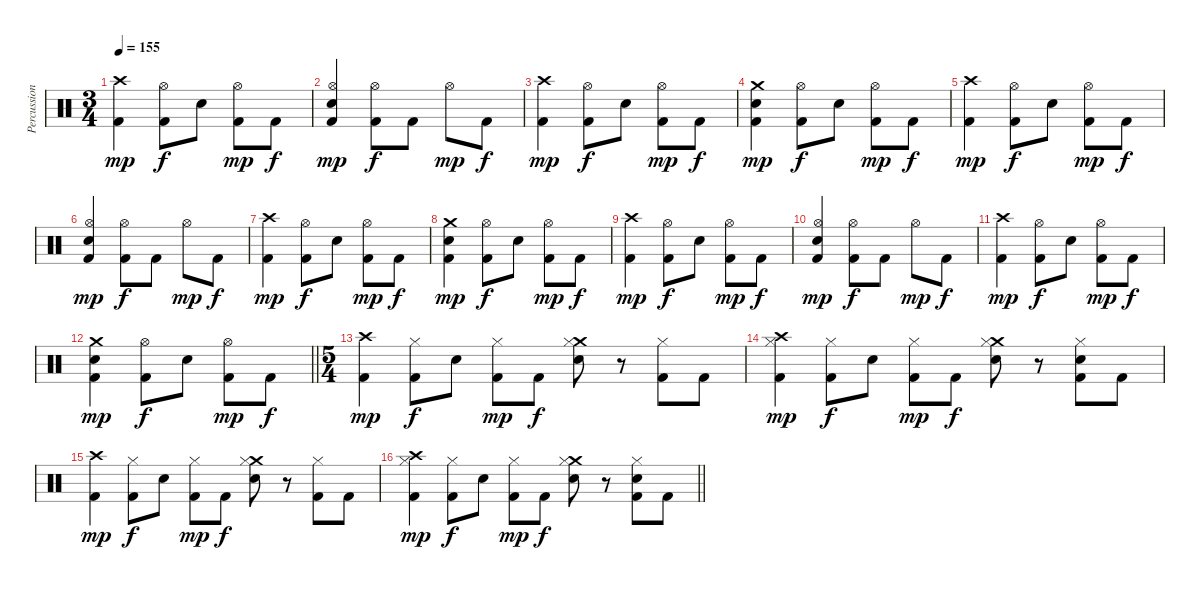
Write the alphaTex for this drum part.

\track ("Percussion" "Percussion") {instrument percussion}
\staff {score}
\articulation defaults
\ts (3 4)
\tempo 155
\clef neutral
\ks c
("Crash high (hit)" "Kick (hit) 2").4{dy mp} ("Hi-Hat (open)" "Kick (hit) 2").8{dy f} "Snare (hit) 2".8 ("Hi-Hat (open)" "Kick (hit) 2").8{dy mp} "Kick (hit) 2".8{dy f} |
("Hi-Hat (open)" "Snare (hit) 2" "Kick (hit) 2").4{dy mp} ("Hi-Hat (open)" "Kick (hit) 2").8{dy f} "Kick (hit) 2".8 "Hi-Hat (open)".8{dy mp} "Kick (hit) 2".8{dy f} |
("Crash high (hit)" "Kick (hit) 2").4{dy mp} ("Hi-Hat (open)" "Kick (hit) 2").8{dy f} "Snare (hit) 2".8 ("Hi-Hat (open)" "Kick (hit) 2").8{dy mp} "Kick (hit) 2".8{dy f} |
("Crash medium (hit)" "Snare (hit) 2" "Kick (hit) 2").4{dy mp} ("Hi-Hat (open)" "Kick (hit) 2").8{dy f} "Snare (hit) 2".8 ("Hi-Hat (open)" "Kick (hit) 2").8{dy mp} "Kick (hit) 2".8{dy f} |
("Crash high (hit)" "Kick (hit) 2").4{dy mp} ("Hi-Hat (open)" "Kick (hit) 2").8{dy f} "Snare (hit) 2".8 ("Hi-Hat (open)" "Kick (hit) 2").8{dy mp} "Kick (hit) 2".8{dy f} |
("Hi-Hat (open)" "Snare (hit) 2" "Kick (hit) 2").4{dy mp} ("Hi-Hat (open)" "Kick (hit) 2").8{dy f} "Kick (hit) 2".8 "Hi-Hat (open)".8{dy mp} "Kick (hit) 2".8{dy f} |
("Crash high (hit)" "Kick (hit) 2").4{dy mp} ("Hi-Hat (open)" "Kick (hit) 2").8{dy f} "Snare (hit) 2".8 ("Hi-Hat (open)" "Kick (hit) 2").8{dy mp} "Kick (hit) 2".8{dy f} |
("Crash medium (hit)" "Snare (hit) 2" "Kick (hit) 2").4{dy mp} ("Hi-Hat (open)" "Kick (hit) 2").8{dy f} "Snare (hit) 2".8 ("Hi-Hat (open)" "Kick (hit) 2").8{dy mp} "Kick (hit) 2".8{dy f} |
("Crash high (hit)" "Kick (hit) 2").4{dy mp} ("Hi-Hat (open)" "Kick (hit) 2").8{dy f} "Snare (hit) 2".8 ("Hi-Hat (open)" "Kick (hit) 2").8{dy mp} "Kick (hit) 2".8{dy f} |
("Hi-Hat (open)" "Snare (hit) 2" "Kick (hit) 2").4{dy mp} ("Hi-Hat (open)" "Kick (hit) 2").8{dy f} "Kick (hit) 2".8 "Hi-Hat (open)".8{dy mp} "Kick (hit) 2".8{dy f} |
("Crash high (hit)" "Kick (hit) 2").4{dy mp} ("Hi-Hat (open)" "Kick (hit) 2").8{dy f} "Snare (hit) 2".8 ("Hi-Hat (open)" "Kick (hit) 2").8{dy mp} "Kick (hit) 2".8{dy f} |
\barLineRight lightlight
("Crash medium (hit)" "Snare (hit) 2" "Kick (hit) 2").4{dy mp} ("Hi-Hat (open)" "Kick (hit) 2").8{dy f} "Snare (hit) 2".8 ("Hi-Hat (open)" "Kick (hit) 2").8{dy mp} "Kick (hit) 2".8{dy f} |
\ts (5 4)
("Crash high (hit)" "Kick (hit) 2").4{dy mp} ("Hi-Hat (closed)" "Kick (hit) 2").8{dy f} "Snare (hit) 2".8 ("Hi-Hat (closed)" "Kick (hit) 2").8{dy mp} "Kick (hit) 2".8{dy f} ("Crash medium (hit)" "Hi-Hat (closed)" "Snare (hit) 2").8 r.8 ("Hi-Hat (closed)" "Kick (hit) 2").8 "Kick (hit) 2".8 |
("Crash high (hit)" "Hi-Hat (closed)" "Kick (hit) 2").4{dy mp} ("Hi-Hat (closed)" "Kick (hit) 2").8{dy f} "Snare (hit) 2".8 ("Hi-Hat (closed)" "Kick (hit) 2").8{dy mp} "Kick (hit) 2".8{dy f} ("Crash medium (hit)" "Hi-Hat (closed)" "Snare (hit) 2").8 r.8 ("Hi-Hat (closed)" "Snare (hit) 2" "Kick (hit) 2").8 "Kick (hit) 2".8 |
("Crash high (hit)" "Kick (hit) 2").4{dy mp} ("Hi-Hat (closed)" "Kick (hit) 2").8{dy f} "Snare (hit) 2".8 ("Hi-Hat (closed)" "Kick (hit) 2").8{dy mp} "Kick (hit) 2".8{dy f} ("Crash medium (hit)" "Hi-Hat (closed)" "Snare (hit) 2").8 r.8 ("Hi-Hat (closed)" "Kick (hit) 2").8 "Kick (hit) 2".8 |
\barLineRight lightlight
("Crash high (hit)" "Hi-Hat (closed)" "Kick (hit) 2").4{dy mp} ("Hi-Hat (closed)" "Kick (hit) 2").8{dy f} "Snare (hit) 2".8 ("Hi-Hat (closed)" "Kick (hit) 2").8{dy mp} "Kick (hit) 2".8{dy f} ("Crash medium (hit)" "Hi-Hat (closed)" "Snare (hit) 2").8 r.8 ("Hi-Hat (closed)" "Snare (hit) 2" "Kick (hit) 2").8 "Kick (hit) 2".8
